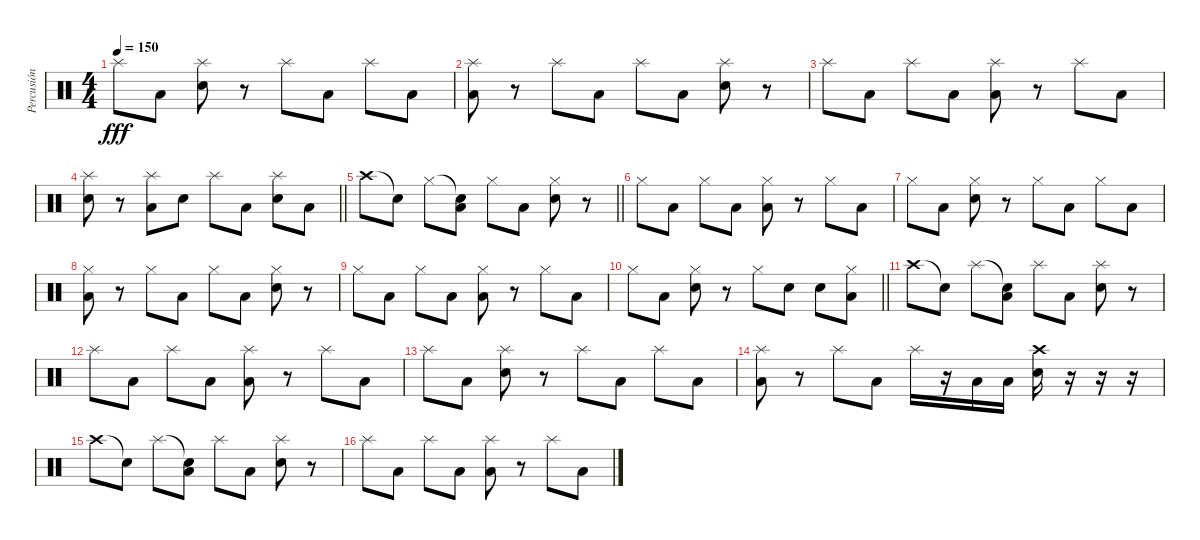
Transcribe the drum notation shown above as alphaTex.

\track ("Percusión" "Percusión") {instrument percussion}
\staff {score}
\articulation defaults
\ts (4 4)
\tempo 150
\clef neutral
\ks c "Splash (hit)".8{dy fff} "Low Tom (hit)".8
("Splash (hit)" "Snare (hit) 2").8 r.8 "Splash (hit)".8 "Low Tom (hit)".8 "Splash (hit)".8 "Low Tom (hit)".8 |
("Splash (hit)" "Low Tom (hit)").8 r.8 "Splash (hit)".8 "Low Tom (hit)".8 "Splash (hit)".8 "Low Tom (hit)".8 ("Splash (hit)" "Snare (hit) 2").8 r.8 |
"Splash (hit)".8 "Low Tom (hit)".8 "Splash (hit)".8 "Low Tom (hit)".8 ("Splash (hit)" "Low Tom (hit)").8 r.8 "Splash (hit)".8 "Low Tom (hit)".8 |
\barLineRight lightlight
("Splash (hit)" "Snare (hit) 2").8 r.8 ("Splash (hit)" "Low Tom (hit)").8 "Snare (hit) 2".8 "Splash (hit)".8 "Low Tom (hit)".8 ("Splash (hit)" "Snare (hit) 2").8 "Low Tom (hit)".8 |
\section ("" "")
\barLineRight lightlight "Crash high (hit)".8 "Snare (hit)"{t}.8 "Hi-Hat (closed)".8
("Snare (hit)"{t} "Low Tom (hit)").8 "Hi-Hat (closed)".8 "Low Tom (hit)".8 ("Hi-Hat (closed)" "Snare (hit) 2").8 r.8 |
"Hi-Hat (closed)".8 "Low Tom (hit)".8 "Hi-Hat (closed)".8 "Low Tom (hit)".8 ("Hi-Hat (closed)" "Low Tom (hit)").8 r.8 "Hi-Hat (closed)".8 "Low Tom (hit)".8 |
"Hi-Hat (closed)".8 "Low Tom (hit)".8 ("Hi-Hat (closed)" "Snare (hit) 2").8 r.8 "Hi-Hat (closed)".8 "Low Tom (hit)".8 "Hi-Hat (closed)".8 "Low Tom (hit)".8 |
("Hi-Hat (closed)" "Low Tom (hit)").8 r.8 "Hi-Hat (closed)".8 "Low Tom (hit)".8 "Hi-Hat (closed)".8 "Low Tom (hit)".8 ("Hi-Hat (closed)" "Snare (hit) 2").8 r.8 |
"Hi-Hat (closed)".8 "Low Tom (hit)".8 "Hi-Hat (closed)".8 "Low Tom (hit)".8 ("Hi-Hat (closed)" "Low Tom (hit)").8 r.8 "Hi-Hat (closed)".8 "Low Tom (hit)".8 |
\barLineRight lightlight "Hi-Hat (closed)".8 "Low Tom (hit)".8
("Hi-Hat (closed)" "Snare (hit) 2").8 r.8 "Hi-Hat (closed)".8 "Snare (hit) 2".8 "Snare (hit) 2".8 ("Hi-Hat (closed)" "Low Tom (hit)").8 |
\section ("" "")
"Crash high (hit)".8 "Snare (hit)"{t}.8 "Splash (hit)".8 ("Snare (hit)"{t} "Low Tom (hit)").8 "Splash (hit)".8 "Low Tom (hit)".8 ("Splash (hit)" "Snare (hit) 2").8 r.8 |
"Splash (hit)".8 "Low Tom (hit)".8 "Splash (hit)".8 "Low Tom (hit)".8 ("Splash (hit)" "Low Tom (hit)").8 r.8 "Splash (hit)".8 "Low Tom (hit)".8 |
"Splash (hit)".8 "Low Tom (hit)".8 ("Splash (hit)" "Snare (hit) 2").8 r.8 "Splash (hit)".8 "Low Tom (hit)".8 "Splash (hit)".8 "Low Tom (hit)".8 |
("Splash (hit)" "Low Tom (hit)").8 r.8 "Splash (hit)".8 "Low Tom (hit)".8 "Splash (hit)".16 r.16 "Low Tom (hit)".16 "Low Tom (hit)".16 ("Crash high (hit)" "Snare (hit) 2").16 r.16 r.16 r.16 |
"Crash high (hit)".8 "Snare (hit)"{t}.8 "Splash (hit)".8 ("Snare (hit)"{t} "Low Tom (hit)").8 "Splash (hit)".8 "Low Tom (hit)".8 ("Splash (hit)" "Snare (hit) 2").8 r.8 |
"Splash (hit)".8 "Low Tom (hit)".8 "Splash (hit)".8 "Low Tom (hit)".8 ("Splash (hit)" "Low Tom (hit)").8 r.8 "Splash (hit)".8 "Low Tom (hit)".8
